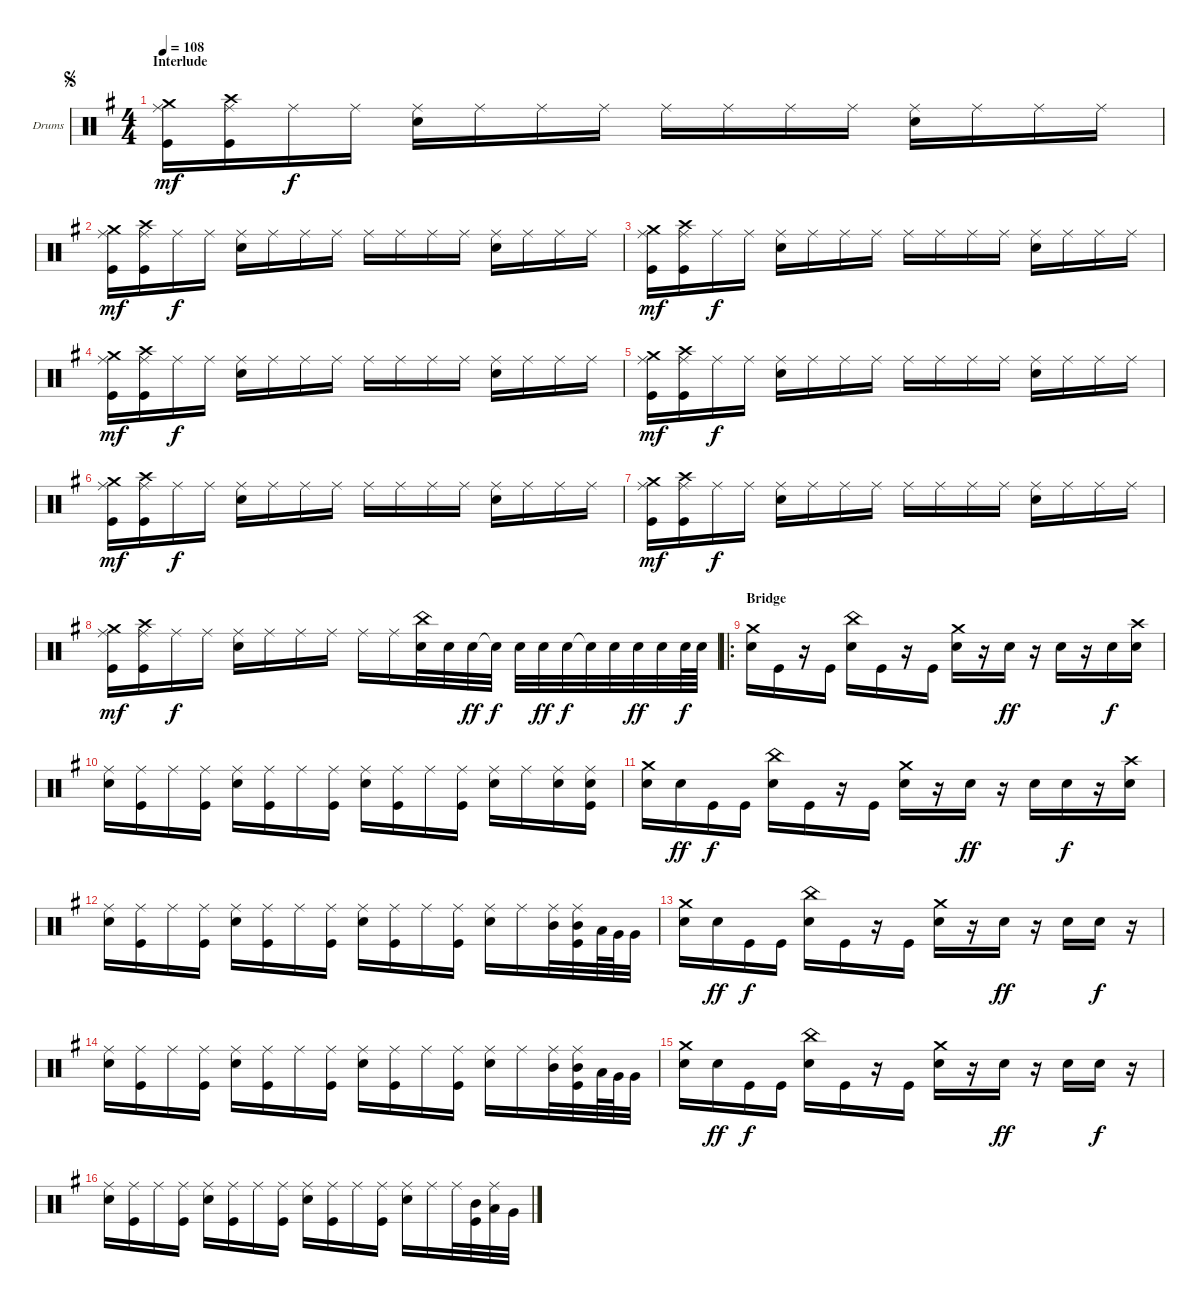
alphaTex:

\defaultSystemsLayout 4
\bracketExtendMode groupsimilarinstruments
\firstSystemTrackNameOrientation horizontal
\otherSystemsTrackNameOrientation horizontal
\track ("Drumkit" "Drums") {instrument percussion}
\staff {score}
\articulation defaults
\ts (4 4)
\section ("" "Interlude")
\jump segno
\tempo 108
\clef neutral
\scale
1.04288
\ks g
("Crash medium (hit)" "Ride (middle)" "Kick (hit)").16{dy mf} ("Crash high (hit)" "Ride (middle)" "Kick (hit)").16 "Ride (middle)".16{dy f} "Ride (middle)".16 ("Ride (middle)" "Snare (hit) 2").16 "Ride (middle)".16 "Ride (middle)".16 "Ride (middle)".16 "Ride (middle)".16 "Ride (middle)".16 "Ride (middle)".16 "Ride (middle)".16 ("Ride (middle)" "Snare (hit) 2").16 "Ride (middle)".16 "Ride (middle)".16 "Ride (middle)".16 |
\scale
0.957125 ("Crash medium (hit)" "Ride (middle)" "Kick (hit)").16{dy mf} ("Crash high (hit)" "Ride (middle)" "Kick (hit)").16 "Ride (middle)".16{dy f} "Ride (middle)".16 ("Ride (middle)" "Snare (hit) 2").16 "Ride (middle)".16 "Ride (middle)".16 "Ride (middle)".16 "Ride (middle)".16 "Ride (middle)".16 "Ride (middle)".16 "Ride (middle)".16 ("Ride (middle)" "Snare (hit) 2").16 "Ride (middle)".16 "Ride (middle)".16 "Ride (middle)".16 |
\scale
1.04288 ("Crash medium (hit)" "Ride (middle)" "Kick (hit)").16{dy mf} ("Crash high (hit)" "Ride (middle)" "Kick (hit)").16 "Ride (middle)".16{dy f} "Ride (middle)".16 ("Ride (middle)" "Snare (hit) 2").16 "Ride (middle)".16 "Ride (middle)".16 "Ride (middle)".16 "Ride (middle)".16 "Ride (middle)".16 "Ride (middle)".16 "Ride (middle)".16 ("Ride (middle)" "Snare (hit) 2").16 "Ride (middle)".16 "Ride (middle)".16 "Ride (middle)".16 |
\scale
0.957125 ("Crash medium (hit)" "Ride (middle)" "Kick (hit)").16{dy mf} ("Crash high (hit)" "Ride (middle)" "Kick (hit)").16 "Ride (middle)".16{dy f} "Ride (middle)".16 ("Ride (middle)" "Snare (hit) 2").16 "Ride (middle)".16 "Ride (middle)".16 "Ride (middle)".16 "Ride (middle)".16 "Ride (middle)".16 "Ride (middle)".16 "Ride (middle)".16 ("Ride (middle)" "Snare (hit) 2").16 "Ride (middle)".16 "Ride (middle)".16 "Ride (middle)".16 |
\scale
1.04288 ("Crash medium (hit)" "Ride (middle)" "Kick (hit)").16{dy mf} ("Crash high (hit)" "Ride (middle)" "Kick (hit)").16 "Ride (middle)".16{dy f} "Ride (middle)".16 ("Ride (middle)" "Snare (hit) 2").16 "Ride (middle)".16 "Ride (middle)".16 "Ride (middle)".16 "Ride (middle)".16 "Ride (middle)".16 "Ride (middle)".16 "Ride (middle)".16 ("Ride (middle)" "Snare (hit) 2").16 "Ride (middle)".16 "Ride (middle)".16 "Ride (middle)".16 |
\scale
0.957125 ("Crash medium (hit)" "Ride (middle)" "Kick (hit)").16{dy mf} ("Crash high (hit)" "Ride (middle)" "Kick (hit)").16 "Ride (middle)".16{dy f} "Ride (middle)".16 ("Ride (middle)" "Snare (hit) 2").16 "Ride (middle)".16 "Ride (middle)".16 "Ride (middle)".16 "Ride (middle)".16 "Ride (middle)".16 "Ride (middle)".16 "Ride (middle)".16 ("Ride (middle)" "Snare (hit) 2").16 "Ride (middle)".16 "Ride (middle)".16 "Ride (middle)".16 |
\scale
1.04288 ("Crash medium (hit)" "Ride (middle)" "Kick (hit)").16{dy mf} ("Crash high (hit)" "Ride (middle)" "Kick (hit)").16 "Ride (middle)".16{dy f} "Ride (middle)".16 ("Ride (middle)" "Snare (hit) 2").16 "Ride (middle)".16 "Ride (middle)".16 "Ride (middle)".16 "Ride (middle)".16 "Ride (middle)".16 "Ride (middle)".16 "Ride (middle)".16 ("Ride (middle)" "Snare (hit) 2").16 "Ride (middle)".16 "Ride (middle)".16 "Ride (middle)".16 |
\scale
0.957125 ("Crash medium (hit)" "Ride (middle)" "Kick (hit)").16{dy mf} ("Crash high (hit)" "Ride (middle)" "Kick (hit)").16 "Ride (middle)".16{dy f} "Ride (middle)".16 ("Ride (middle)" "Snare (hit) 2").16 "Ride (middle)".16 "Ride (middle)".16 "Ride (middle)".16 "Ride (middle)".16 "Ride (middle)".16 ("China (hit)" "Snare (hit) 2").32 "Snare (hit) 2".32 "Snare (hit) 2".32{dy ff} "Snare (hit) 2"{t}.32{dy f} "Snare (hit) 2".32 "Snare (hit) 2".32{dy ff} "Snare (hit) 2".32{dy f} "Snare (hit) 2"{t}.32 "Snare (hit) 2".32 "Snare (hit) 2".32{dy ff} "Snare (hit) 2".32 "Snare (hit) 2".64{dy f} "Snare (hit) 2".64 |
\ro
\section ("" "Bridge")
\scale
1.04288 ("Crash medium (hit)" "Snare (hit) 2").16 "Kick (hit)".16 r.16 "Kick (hit)".16 ("China (hit)" "Snare (hit) 2").16 "Kick (hit)".16 r.16 "Kick (hit)".16 ("Crash medium (hit)" "Snare (hit) 2").16 r.16 "Snare (hit) 2".16{dy ff} r.16 "Snare (hit) 2".16 r.16 "Snare (hit) 2".16{dy f} ("Crash high (hit)" "Snare (hit) 2").16 |
\scale
0.957125 ("Ride (middle)" "Snare (hit) 2").16 ("Ride (middle)" "Kick (hit)").16 "Ride (middle)".16 ("Ride (middle)" "Kick (hit)").16 ("Ride (middle)" "Snare (hit) 2").16 ("Ride (middle)" "Kick (hit)").16 "Ride (middle)".16 ("Ride (middle)" "Kick (hit)").16 ("Ride (middle)" "Snare (hit) 2").16 ("Ride (middle)" "Kick (hit)").16 "Ride (middle)".16 ("Ride (middle)" "Kick (hit)").16 ("Ride (middle)" "Snare (hit) 2").16 "Ride (middle)".16 ("Ride (middle)" "Snare (hit) 2").16 ("Ride (middle)" "Snare (hit) 2" "Kick (hit)").16 |
\scale
1.04288 ("Crash medium (hit)" "Snare (hit) 2").16 "Snare (hit) 2".16{dy ff} "Kick (hit)".16{dy f} "Kick (hit)".16 ("China (hit)" "Snare (hit) 2").16 "Kick (hit)".16 r.16 "Kick (hit)".16 ("Crash medium (hit)" "Snare (hit) 2").16 r.16 "Snare (hit) 2".16{dy ff} r.16 "Snare (hit) 2".16 "Snare (hit) 2".16{dy f} r.16 ("Crash high (hit)" "Snare (hit) 2").16 |
\scale
0.957125 ("Ride (middle)" "Snare (hit) 2").16 ("Ride (middle)" "Kick (hit)").16 "Ride (middle)".16 ("Ride (middle)" "Kick (hit)").16 ("Ride (middle)" "Snare (hit) 2").16 ("Ride (middle)" "Kick (hit)").16 "Ride (middle)".16 ("Ride (middle)" "Kick (hit)").16 ("Ride (middle)" "Snare (hit) 2").16 ("Ride (middle)" "Kick (hit)").16 "Ride (middle)".16 ("Ride (middle)" "Kick (hit)").16 ("Ride (middle)" "Snare (hit) 2").16 "Ride (middle)".16 ("Mid Tom (hit)" "Ride (middle)").32 ("Mid Tom (hit)" "Ride (middle)" "Kick (hit)").32 "Low Tom (hit)".64 "Very Low Tom (hit)".64 "Very Low Tom (hit)".32 |
\scale
1.04288 ("Crash medium (hit)" "Snare (hit) 2").16 "Snare (hit) 2".16{dy ff} "Kick (hit)".16{dy f} "Kick (hit)".16 ("China (hit)" "Snare (hit) 2").16 "Kick (hit)".16 r.16 "Kick (hit)".16 ("Crash medium (hit)" "Snare (hit) 2").16 r.16 "Snare (hit) 2".16{dy ff} r.16 "Snare (hit) 2".16 "Snare (hit) 2".16{dy f} r.16 |
\scale
0.957125 ("Ride (middle)" "Snare (hit) 2").16 ("Ride (middle)" "Kick (hit)").16 "Ride (middle)".16 ("Ride (middle)" "Kick (hit)").16 ("Ride (middle)" "Snare (hit) 2").16 ("Ride (middle)" "Kick (hit)").16 "Ride (middle)".16 ("Ride (middle)" "Kick (hit)").16 ("Ride (middle)" "Snare (hit) 2").16 ("Ride (middle)" "Kick (hit)").16 "Ride (middle)".16 ("Ride (middle)" "Kick (hit)").16 ("Ride (middle)" "Snare (hit) 2").16 "Ride (middle)".16 ("Mid Tom (hit)" "Ride (middle)").32 ("Mid Tom (hit)" "Ride (middle)" "Kick (hit)").32 "Low Tom (hit)".64 "Very Low Tom (hit)".64 "Very Low Tom (hit)".32 |
\scale
1.04288 ("Crash medium (hit)" "Snare (hit) 2").16 "Snare (hit) 2".16{dy ff} "Kick (hit)".16{dy f} "Kick (hit)".16 ("China (hit)" "Snare (hit) 2").16 "Kick (hit)".16 r.16 "Kick (hit)".16 ("Crash medium (hit)" "Snare (hit) 2").16 r.16 "Snare (hit) 2".16{dy ff} r.16 "Snare (hit) 2".16 "Snare (hit) 2".16{dy f} r.16 |
\scale
0.957125 ("Ride (middle)" "Snare (hit) 2").16 ("Ride (middle)" "Kick (hit)").16 "Ride (middle)".16 ("Ride (middle)" "Kick (hit)").16 ("Ride (middle)" "Snare (hit) 2").16 ("Ride (middle)" "Kick (hit)").16 "Ride (middle)".16 ("Ride (middle)" "Kick (hit)").16 ("Ride (middle)" "Snare (hit) 2").16 ("Ride (middle)" "Kick (hit)").16 "Ride (middle)".16 ("Ride (middle)" "Kick (hit)").16 ("Ride (middle)" "Snare (hit) 2").16 "Ride (middle)".16 "Ride (middle)".32 ("Mid Tom (hit)" "Kick (hit)").32 ("Low Tom (hit)" "Ride (middle)").32 "Very Low Tom (hit)".32
